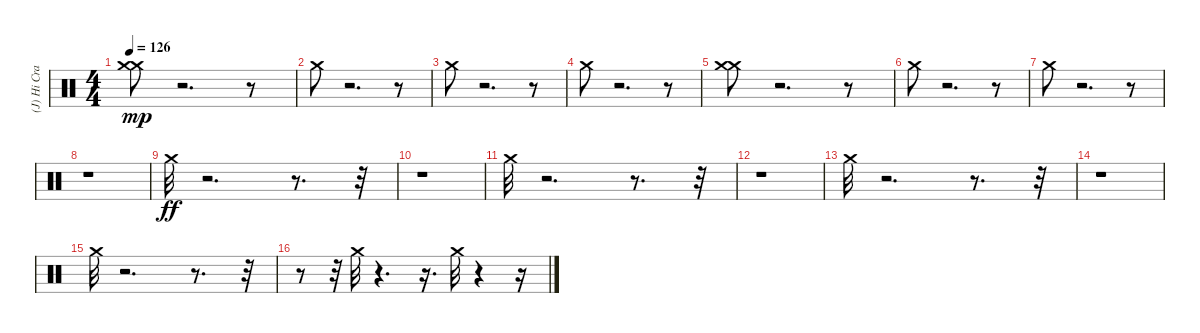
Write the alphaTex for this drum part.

\track ("(J) Hi Crash Cymbal" "(J) Hi Cra") {instrument percussion}
\staff {score}
\articulation defaults
\ts (4 4)
\tempo 126
\clef neutral
\ks c
("Crash medium (hit)" "Crash medium (hit)").8{dy mp} r.2{d} r.8 |
"Crash medium (hit)".8 r.2{d} r.8 |
"Crash medium (hit)".8 r.2{d} r.8 |
"Crash medium (hit)".8 r.2{d} r.8 |
("Crash medium (hit)" "Crash medium (hit)").8 r.2{d} r.8 |
"Crash medium (hit)".8 r.2{d} r.8 |
"Crash medium (hit)".8 r.2{d} r.8 |
r.1 |
"Crash medium (hit)".32{dy ff} r.2{d} r.8{d} r.32 |
r.1 |
"Crash medium (hit)".32 r.2{d} r.8{d} r.32 |
r.1 |
"Crash medium (hit)".32 r.2{d} r.8{d} r.32 |
r.1 |
"Crash medium (hit)".32 r.2{d} r.8{d} r.32 |
r.8 r.32 "Crash medium (hit)".32 r.4{d} r.16{d} "Crash medium (hit)".32 r.4 r.16
